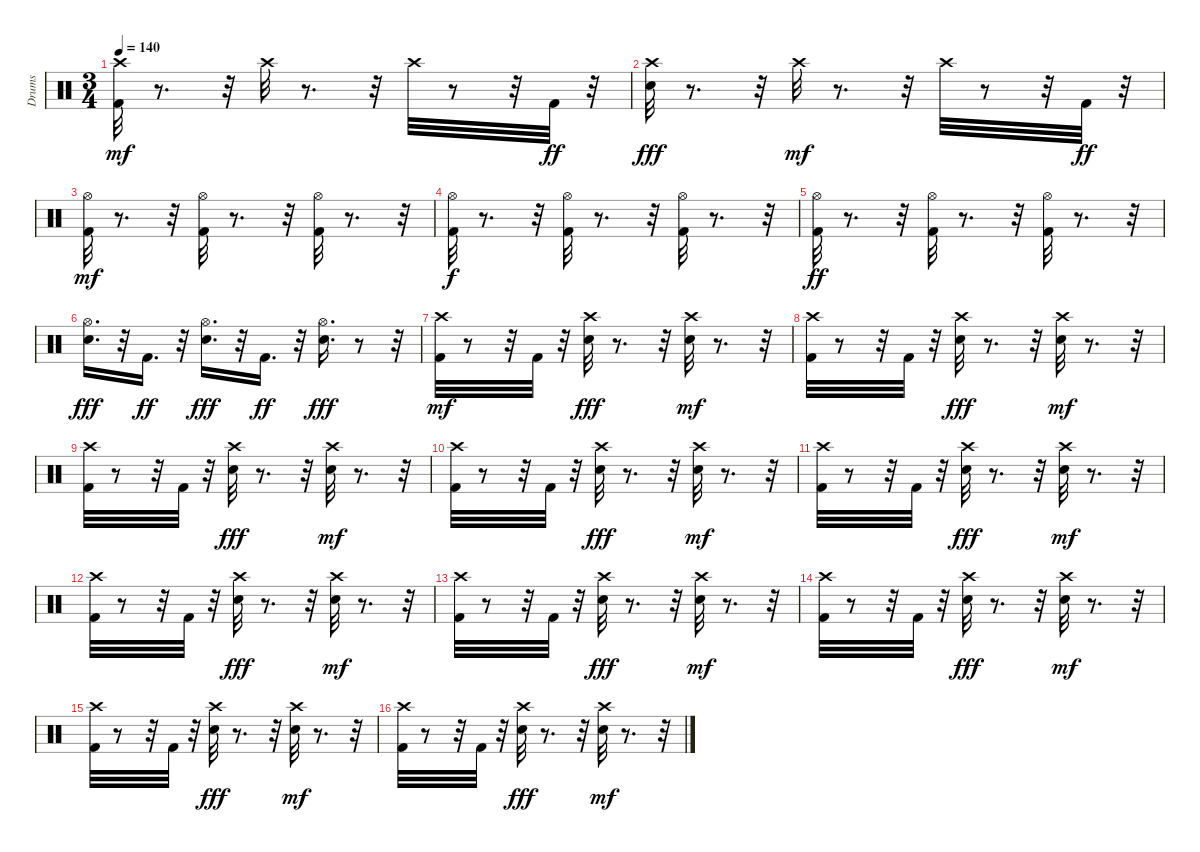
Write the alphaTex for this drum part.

\track ("Drums" "Drums") {instrument percussion}
\staff {score}
\articulation defaults
\ts (3 4)
\tempo 140
\clef neutral
\ks c
("Kick (hit) 2" "Crash high (hit)").32{dy mf} r.8{d} r.32 "Crash high (hit)".32 r.8{d} r.32 "Crash high (hit)".32 r.8 r.32 "Kick (hit) 2".32{dy ff} r.32 |
("Snare (hit) 2" "Crash high (hit)").32{dy fff} r.8{d} r.32 "Crash high (hit)".32{dy mf} r.8{d} r.32 "Crash high (hit)".32 r.8 r.32 "Kick (hit) 2".32{dy ff} r.32 |
("Hi-Hat (open)" "Kick (hit) 2").32{dy mf} r.8{d} r.32 ("Kick (hit) 2" "Hi-Hat (open)").32 r.8{d} r.32 ("Kick (hit) 2" "Hi-Hat (open)").32 r.8{d} r.32 |
("Kick (hit) 2" "Hi-Hat (open)").32{dy f} r.8{d} r.32 ("Kick (hit) 2" "Hi-Hat (open)").32 r.8{d} r.32 ("Kick (hit) 2" "Hi-Hat (open)").32 r.8{d} r.32 |
("Kick (hit) 2" "Hi-Hat (open)").32{dy ff} r.8{d} r.32 ("Kick (hit) 2" "Hi-Hat (open)").32 r.8{d} r.32 ("Kick (hit) 2" "Hi-Hat (open)").32 r.8{d} r.32 |
("Hi-Hat (open)" "Snare (hit) 2").16{d dy fff} r.32 "Kick (hit) 2".16{d dy ff} r.32 ("Hi-Hat (open)" "Snare (hit) 2").16{d dy fff} r.32 "Kick (hit) 2".16{d dy ff} r.32 ("Hi-Hat (open)" "Snare (hit) 2").16{d dy fff} r.8 r.32 |
("Kick (hit) 2" "Crash high (hit)").32{dy mf} r.8 r.32 "Kick (hit) 2".32 r.32 ("Snare (hit) 2" "Crash high (hit)").32{dy fff} r.8{d} r.32 ("Snare (hit) 2" "Crash high (hit)").32{dy mf} r.8{d} r.32 |
("Kick (hit) 2" "Crash high (hit)").32 r.8 r.32 "Kick (hit) 2".32 r.32 ("Snare (hit) 2" "Crash high (hit)").32{dy fff} r.8{d} r.32 ("Snare (hit) 2" "Crash high (hit)").32{dy mf} r.8{d} r.32 |
("Kick (hit) 2" "Crash high (hit)").32 r.8 r.32 "Kick (hit) 2".32 r.32 ("Snare (hit) 2" "Crash high (hit)").32{dy fff} r.8{d} r.32 ("Snare (hit) 2" "Crash high (hit)").32{dy mf} r.8{d} r.32 |
("Kick (hit) 2" "Crash high (hit)").32 r.8 r.32 "Kick (hit) 2".32 r.32 ("Snare (hit) 2" "Crash high (hit)").32{dy fff} r.8{d} r.32 ("Snare (hit) 2" "Crash high (hit)").32{dy mf} r.8{d} r.32 |
("Kick (hit) 2" "Crash high (hit)").32 r.8 r.32 "Kick (hit) 2".32 r.32 ("Snare (hit) 2" "Crash high (hit)").32{dy fff} r.8{d} r.32 ("Snare (hit) 2" "Crash high (hit)").32{dy mf} r.8{d} r.32 |
("Kick (hit) 2" "Crash high (hit)").32 r.8 r.32 "Kick (hit) 2".32 r.32 ("Snare (hit) 2" "Crash high (hit)").32{dy fff} r.8{d} r.32 ("Snare (hit) 2" "Crash high (hit)").32{dy mf} r.8{d} r.32 |
("Kick (hit) 2" "Crash high (hit)").32 r.8 r.32 "Kick (hit) 2".32 r.32 ("Snare (hit) 2" "Crash high (hit)").32{dy fff} r.8{d} r.32 ("Snare (hit) 2" "Crash high (hit)").32{dy mf} r.8{d} r.32 |
("Kick (hit) 2" "Crash high (hit)").32 r.8 r.32 "Kick (hit) 2".32 r.32 ("Snare (hit) 2" "Crash high (hit)").32{dy fff} r.8{d} r.32 ("Snare (hit) 2" "Crash high (hit)").32{dy mf} r.8{d} r.32 |
("Kick (hit) 2" "Crash high (hit)").32 r.8 r.32 "Kick (hit) 2".32 r.32 ("Snare (hit) 2" "Crash high (hit)").32{dy fff} r.8{d} r.32 ("Snare (hit) 2" "Crash high (hit)").32{dy mf} r.8{d} r.32 |
("Kick (hit) 2" "Crash high (hit)").32 r.8 r.32 "Kick (hit) 2".32 r.32 ("Snare (hit) 2" "Crash high (hit)").32{dy fff} r.8{d} r.32 ("Snare (hit) 2" "Crash high (hit)").32{dy mf} r.8{d} r.32
